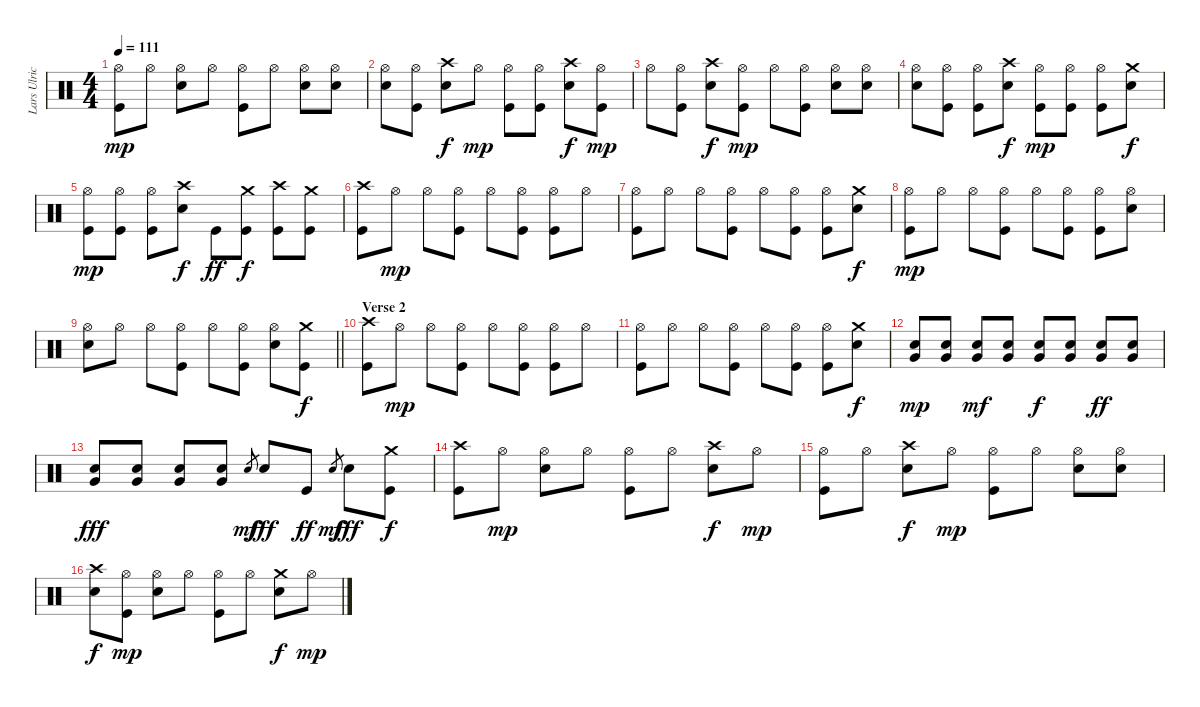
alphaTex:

\track ("Lars Ulrich (Drums)" "Lars Ulric") {instrument percussion}
\staff {score}
\articulation defaults
\ts (4 4)
\tempo 111
\clef neutral
\ks c
("Hi-Hat (open)" "Kick (hit)").8{dy mp} "Hi-Hat (open)".8 ("Hi-Hat (open)" "Snare (hit) 2").8 "Hi-Hat (open)".8 ("Hi-Hat (open)" "Kick (hit)").8 "Hi-Hat (open)".8 ("Hi-Hat (open)" "Snare (hit) 2").8 ("Hi-Hat (open)" "Snare (hit) 2").8 |
("Hi-Hat (open)" "Snare (hit) 2").8 ("Hi-Hat (open)" "Kick (hit)").8 ("Crash high (hit)" "Snare (hit) 2").8{dy f} "Hi-Hat (open)".8{dy mp} ("Hi-Hat (open)" "Kick (hit)").8 ("Hi-Hat (open)" "Kick (hit)").8 ("Crash high (hit)" "Snare (hit) 2").8{dy f} ("Hi-Hat (open)" "Kick (hit)").8{dy mp} |
"Hi-Hat (open)".8 ("Hi-Hat (open)" "Kick (hit)").8 ("Crash high (hit)" "Snare (hit) 2").8{dy f} ("Hi-Hat (open)" "Kick (hit)").8{dy mp} "Hi-Hat (open)".8 ("Hi-Hat (open)" "Kick (hit)").8 ("Hi-Hat (open)" "Snare (hit) 2").8 ("Hi-Hat (open)" "Snare (hit) 2").8 |
("Hi-Hat (open)" "Snare (hit) 2").8 ("Hi-Hat (open)" "Kick (hit)").8 ("Hi-Hat (open)" "Kick (hit)").8 ("Crash high (hit)" "Snare (hit) 2").8{dy f} ("Hi-Hat (open)" "Kick (hit)").8{dy mp} ("Hi-Hat (open)" "Kick (hit)").8 ("Hi-Hat (open)" "Kick (hit)").8 ("Crash medium (hit)" "Snare (hit) 2").8{dy f} |
("Hi-Hat (open)" "Kick (hit)").8{dy mp} ("Hi-Hat (open)" "Kick (hit)").8 ("Hi-Hat (open)" "Kick (hit)").8 ("Crash high (hit)" "Snare (hit) 2").8{dy f} "Kick (hit)".8{dy ff} ("Crash medium (hit)" "Kick (hit)").8{dy f} ("Crash high (hit)" "Kick (hit)").8 ("Crash medium (hit)" "Kick (hit)").8 |
("Crash high (hit)" "Kick (hit)").8 "Hi-Hat (open)".8{dy mp} "Hi-Hat (open)".8 ("Hi-Hat (open)" "Kick (hit)").8 "Hi-Hat (open)".8 ("Hi-Hat (open)" "Kick (hit)").8 ("Hi-Hat (open)" "Kick (hit)").8 "Hi-Hat (open)".8 |
("Hi-Hat (open)" "Kick (hit)").8 "Hi-Hat (open)".8 "Hi-Hat (open)".8 ("Hi-Hat (open)" "Kick (hit)").8 "Hi-Hat (open)".8 ("Hi-Hat (open)" "Kick (hit)").8 ("Hi-Hat (open)" "Kick (hit)").8 ("Crash medium (hit)" "Snare (hit) 2").8{dy f} |
("Hi-Hat (open)" "Kick (hit)").8{dy mp} "Hi-Hat (open)".8 "Hi-Hat (open)".8 ("Hi-Hat (open)" "Kick (hit)").8 "Hi-Hat (open)".8 ("Hi-Hat (open)" "Kick (hit)").8 ("Hi-Hat (open)" "Kick (hit)").8 ("Hi-Hat (open)" "Snare (hit) 2").8 |
\barLineRight lightlight
("Hi-Hat (open)" "Snare (hit) 2").8 "Hi-Hat (open)".8 "Hi-Hat (open)".8 ("Hi-Hat (open)" "Kick (hit)").8 "Hi-Hat (open)".8 ("Hi-Hat (open)" "Kick (hit)").8 ("Hi-Hat (open)" "Snare (hit) 2").8 ("Crash medium (hit)" "Kick (hit)").8{dy f} |
\section ("" "Verse 2")
("Crash high (hit)" "Kick (hit)").8 "Hi-Hat (open)".8{dy mp} "Hi-Hat (open)".8 ("Hi-Hat (open)" "Kick (hit)").8 "Hi-Hat (open)".8 ("Hi-Hat (open)" "Kick (hit)").8 ("Hi-Hat (open)" "Kick (hit)").8 "Hi-Hat (open)".8 |
("Hi-Hat (open)" "Kick (hit)").8 "Hi-Hat (open)".8 "Hi-Hat (open)".8 ("Hi-Hat (open)" "Kick (hit)").8 "Hi-Hat (open)".8 ("Hi-Hat (open)" "Kick (hit)").8 ("Hi-Hat (open)" "Kick (hit)").8 ("Crash medium (hit)" "Snare (hit) 2").8{dy f} |
("Very Low Tom (hit)" "Snare (hit) 2").8{dy mp} ("Very Low Tom (hit)" "Snare (hit) 2").8 ("Very Low Tom (hit)" "Snare (hit) 2").8{dy mf} ("Very Low Tom (hit)" "Snare (hit) 2").8 ("Very Low Tom (hit)" "Snare (hit) 2").8{dy f} ("Very Low Tom (hit)" "Snare (hit) 2").8 ("Very Low Tom (hit)" "Snare (hit) 2").8{dy ff} ("Very Low Tom (hit)" "Snare (hit) 2").8 |
("Very Low Tom (hit)" "Snare (hit) 2").8{dy fff} ("Very Low Tom (hit)" "Snare (hit) 2").8 ("Very Low Tom (hit)" "Snare (hit) 2").8 ("Very Low Tom (hit)" "Snare (hit) 2").8 "Snare (hit)".8{gr dy mf} "Snare (hit) 2".8{dy fff} "Kick (hit)".8{dy ff} "Snare (hit)".8{gr dy mf} "Snare (hit) 2".8{dy fff} ("Crash medium (hit)" "Kick (hit)").8{dy f} |
("Crash high (hit)" "Kick (hit)").8 "Hi-Hat (open)".8{dy mp} ("Hi-Hat (open)" "Snare (hit) 2").8 "Hi-Hat (open)".8 ("Hi-Hat (open)" "Kick (hit)").8 "Hi-Hat (open)".8 ("Crash high (hit)" "Snare (hit) 2").8{dy f} "Hi-Hat (open)".8{dy mp} |
("Hi-Hat (open)" "Kick (hit)").8 "Hi-Hat (open)".8 ("Crash high (hit)" "Snare (hit) 2").8{dy f} "Hi-Hat (open)".8{dy mp} ("Hi-Hat (open)" "Kick (hit)").8 "Hi-Hat (open)".8 ("Hi-Hat (open)" "Snare (hit) 2").8 ("Hi-Hat (open)" "Snare (hit) 2").8 |
("Crash high (hit)" "Snare (hit) 2").8{dy f} ("Hi-Hat (open)" "Kick (hit)").8{dy mp} ("Hi-Hat (open)" "Snare (hit) 2").8 "Hi-Hat (open)".8 ("Hi-Hat (open)" "Kick (hit)").8 "Hi-Hat (open)".8 ("Crash medium (hit)" "Snare (hit) 2").8{dy f} "Hi-Hat (open)".8{dy mp}
